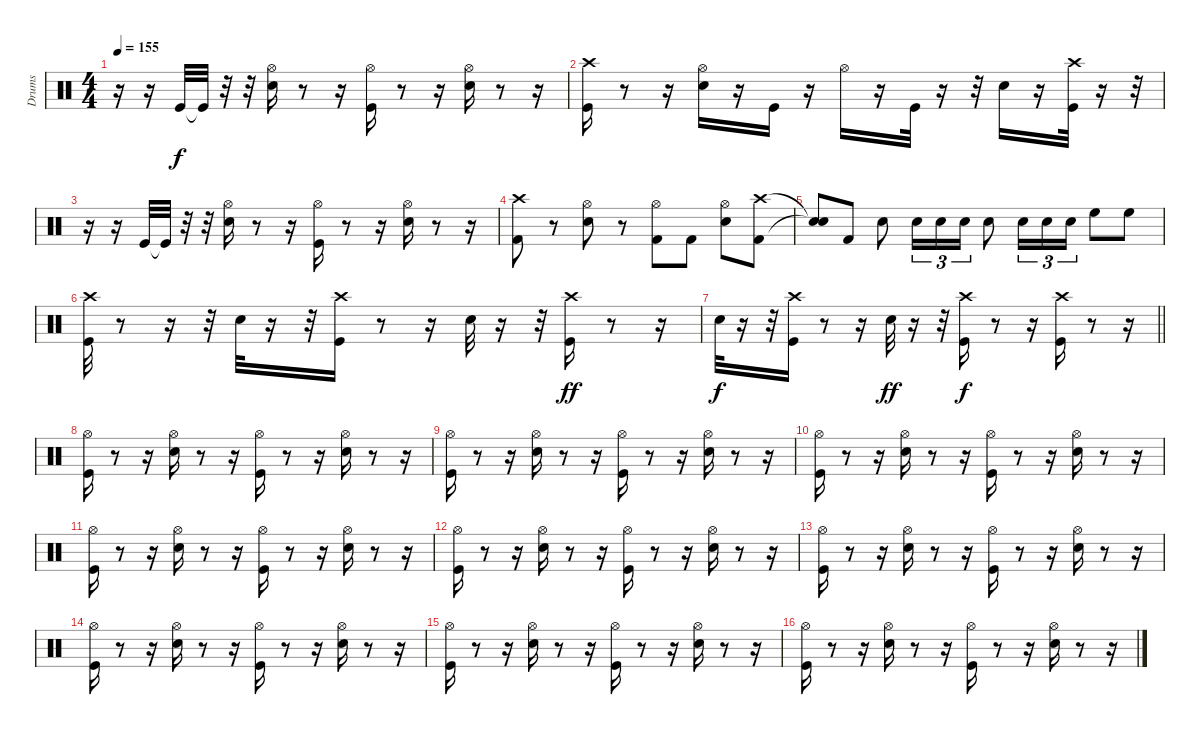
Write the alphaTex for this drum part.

\track ("Drums" "Drums") {instrument percussion}
\staff {score}
\articulation defaults
\ts (4 4)
\tempo 155
\clef neutral
\ks c
r.16{dy f} r.16 "Kick (hit)".32 "Kick (hit)"{t}.32 r.32 r.32 ("Hi-Hat (open)" "Snare (hit) 2").16 r.8 r.16 ("Hi-Hat (open)" "Kick (hit)").16 r.8 r.16 ("Hi-Hat (open)" "Snare (hit) 2").16 r.8 r.16 |
("Kick (hit)" "Crash high (hit)").16 r.8 r.16 ("Hi-Hat (open)" "Snare (hit) 2").16 r.16 "Kick (hit)".16 r.16 "Hi-Hat (open)".16 r.16 "Kick (hit)".32 r.16 r.32 "Snare (hit) 2".16 r.16 ("Kick (hit)" "Crash high (hit)").32 r.16 r.32 |
r.16 r.16 "Kick (hit)".32 "Kick (hit)"{t}.32 r.32 r.32 ("Hi-Hat (open)" "Snare (hit) 2").16 r.8 r.16 ("Hi-Hat (open)" "Kick (hit)").16 r.8 r.16 ("Hi-Hat (open)" "Snare (hit) 2").16 r.8 r.16 |
("Crash high (hit)" "Kick (hit) 2").8 r.8 ("Hi-Hat (open)" "Snare (hit) 2").8 r.8 ("Hi-Hat (open)" "Kick (hit) 2").8 "Kick (hit) 2".8 ("Hi-Hat (open)" "Snare (hit) 2").8 ("Crash high (hit)" "Kick (hit) 2").8 |
("Snare (hit)"{t} "Snare (hit)"{t}).8 "Kick (hit) 2".8 "Snare (hit) 2".8 "Snare (hit) 2".16{tu (3 2)} "Snare (hit) 2".16{tu (3 2)} "Snare (hit) 2".16{tu (3 2)} "Snare (hit) 2".8 "Snare (hit) 2".16{tu (3 2)} "Snare (hit) 2".16{tu (3 2)} "Snare (hit) 2".16{tu (3 2)} "High Floor Tom (hit)".8 "High Floor Tom (hit)".8 |
("Kick (hit)" "Crash high (hit)").32 r.8 r.16 r.32 "Snare (hit) 2".32 r.16 r.32 ("Kick (hit)" "Crash high (hit)").16 r.8 r.16 "Snare (hit) 2".32 r.16 r.32 ("Kick (hit)" "Crash high (hit)").16{dy ff} r.8 r.16 |
\barLineRight lightlight "Snare (hit) 2".32{dy f}
r.16 r.32 ("Kick (hit)" "Crash high (hit)").16 r.8 r.16 "Snare (hit) 2".32{dy ff} r.16 r.32 ("Kick (hit)" "Crash high (hit)").16{dy f} r.8 r.16 ("Kick (hit)" "Crash high (hit)").16 r.8 r.16 |
("Hi-Hat (open)" "Kick (hit)").16 r.8 r.16 ("Hi-Hat (open)" "Snare (hit) 2").16 r.8 r.16 ("Kick (hit)" "Hi-Hat (open)").16 r.8 r.16 ("Snare (hit) 2" "Hi-Hat (open)").16 r.8 r.16 |
("Hi-Hat (open)" "Kick (hit)").16 r.8 r.16 ("Hi-Hat (open)" "Snare (hit) 2").16 r.8 r.16 ("Kick (hit)" "Hi-Hat (open)").16 r.8 r.16 ("Snare (hit) 2" "Hi-Hat (open)").16 r.8 r.16 |
("Hi-Hat (open)" "Kick (hit)").16 r.8 r.16 ("Hi-Hat (open)" "Snare (hit) 2").16 r.8 r.16 ("Kick (hit)" "Hi-Hat (open)").16 r.8 r.16 ("Snare (hit) 2" "Hi-Hat (open)").16 r.8 r.16 |
("Hi-Hat (open)" "Kick (hit)").16 r.8 r.16 ("Hi-Hat (open)" "Snare (hit) 2").16 r.8 r.16 ("Kick (hit)" "Hi-Hat (open)").16 r.8 r.16 ("Snare (hit) 2" "Hi-Hat (open)").16 r.8 r.16 |
("Hi-Hat (open)" "Kick (hit)").16 r.8 r.16 ("Hi-Hat (open)" "Snare (hit) 2").16 r.8 r.16 ("Kick (hit)" "Hi-Hat (open)").16 r.8 r.16 ("Snare (hit) 2" "Hi-Hat (open)").16 r.8 r.16 |
("Hi-Hat (open)" "Kick (hit)").16 r.8 r.16 ("Hi-Hat (open)" "Snare (hit) 2").16 r.8 r.16 ("Kick (hit)" "Hi-Hat (open)").16 r.8 r.16 ("Snare (hit) 2" "Hi-Hat (open)").16 r.8 r.16 |
("Hi-Hat (open)" "Kick (hit)").16 r.8 r.16 ("Hi-Hat (open)" "Snare (hit) 2").16 r.8 r.16 ("Kick (hit)" "Hi-Hat (open)").16 r.8 r.16 ("Snare (hit) 2" "Hi-Hat (open)").16 r.8 r.16 |
("Hi-Hat (open)" "Kick (hit)").16 r.8 r.16 ("Hi-Hat (open)" "Snare (hit) 2").16 r.8 r.16 ("Kick (hit)" "Hi-Hat (open)").16 r.8 r.16 ("Snare (hit) 2" "Hi-Hat (open)").16 r.8 r.16 |
("Hi-Hat (open)" "Kick (hit)").16 r.8 r.16 ("Hi-Hat (open)" "Snare (hit) 2").16 r.8 r.16 ("Kick (hit)" "Hi-Hat (open)").16 r.8 r.16 ("Snare (hit) 2" "Hi-Hat (open)").16 r.8 r.16
